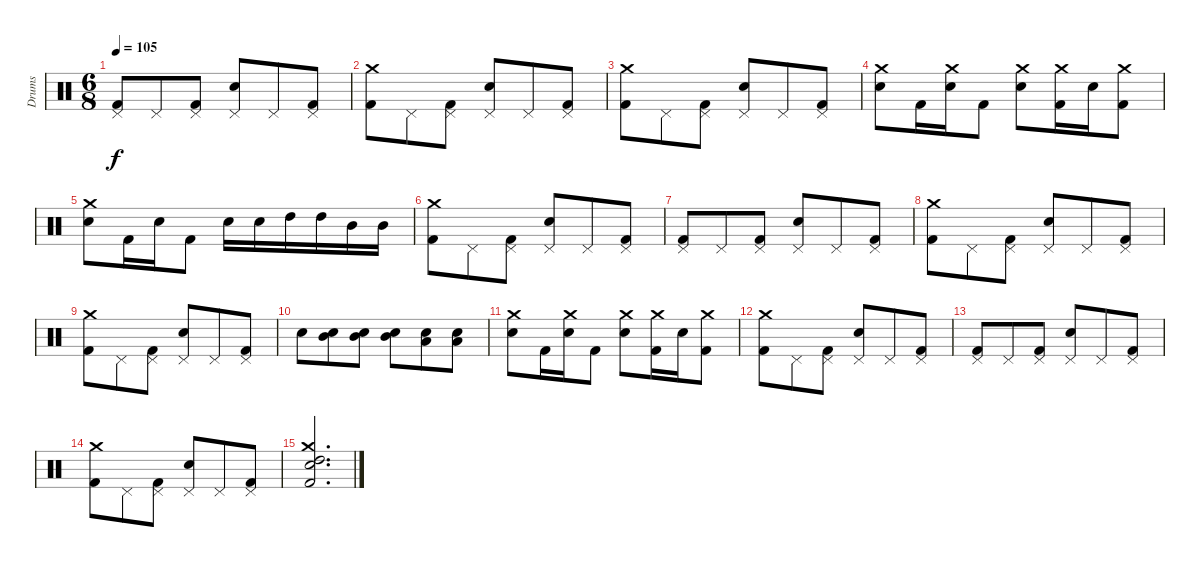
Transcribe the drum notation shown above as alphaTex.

\track ("Drums" "Drums") {instrument percussion}
\staff {score}
\articulation defaults
\ts (6 8)
\tempo 105
\clef neutral
\ks c
("Pedal Hi-Hat (hit)" "Kick (hit) 2").8{dy f} "Pedal Hi-Hat (hit)".8 ("Pedal Hi-Hat (hit)" "Kick (hit) 2").8 ("Pedal Hi-Hat (hit)" "Snare (hit) 2").8 "Pedal Hi-Hat (hit)".8 ("Pedal Hi-Hat (hit)" "Kick (hit) 2").8 |
("Crash medium (hit)" "Kick (hit) 2").8 "Pedal Hi-Hat (hit)".8 ("Pedal Hi-Hat (hit)" "Kick (hit) 2").8 ("Pedal Hi-Hat (hit)" "Snare (hit) 2").8 "Pedal Hi-Hat (hit)".8 ("Pedal Hi-Hat (hit)" "Kick (hit) 2").8 |
("Crash medium (hit)" "Kick (hit) 2").8 "Pedal Hi-Hat (hit)".8 ("Pedal Hi-Hat (hit)" "Kick (hit) 2").8 ("Pedal Hi-Hat (hit)" "Snare (hit) 2").8 "Pedal Hi-Hat (hit)".8 ("Pedal Hi-Hat (hit)" "Kick (hit) 2").8 |
("Crash medium (hit)" "Snare (hit) 2").8 "Kick (hit) 2".16 ("Crash medium (hit)" "Snare (hit) 2").16 "Kick (hit) 2".8 ("Crash medium (hit)" "Snare (hit) 2").8 ("Crash medium (hit)" "Kick (hit) 2").16 "Snare (hit) 2".16 ("Crash medium (hit)" "Kick (hit) 2").8 |
("Crash medium (hit)" "Snare (hit) 2").8 "Kick (hit) 2".16 "Snare (hit) 2".16 "Kick (hit) 2".8 "Snare (hit) 2".16 "Snare (hit) 2".16 "High Tom (hit)".16 "High Tom (hit)".16 "Mid Tom (hit)".16 "Mid Tom (hit)".16 |
("Crash medium (hit)" "Kick (hit) 2").8 "Pedal Hi-Hat (hit)".8 ("Pedal Hi-Hat (hit)" "Kick (hit) 2").8 ("Pedal Hi-Hat (hit)" "Snare (hit) 2").8 "Pedal Hi-Hat (hit)".8 ("Pedal Hi-Hat (hit)" "Kick (hit) 2").8 |
("Pedal Hi-Hat (hit)" "Kick (hit) 2").8 "Pedal Hi-Hat (hit)".8 ("Pedal Hi-Hat (hit)" "Kick (hit) 2").8 ("Pedal Hi-Hat (hit)" "Snare (hit) 2").8 "Pedal Hi-Hat (hit)".8 ("Pedal Hi-Hat (hit)" "Kick (hit) 2").8 |
("Crash medium (hit)" "Kick (hit) 2").8 "Pedal Hi-Hat (hit)".8 ("Pedal Hi-Hat (hit)" "Kick (hit) 2").8 ("Pedal Hi-Hat (hit)" "Snare (hit) 2").8 "Pedal Hi-Hat (hit)".8 ("Pedal Hi-Hat (hit)" "Kick (hit) 2").8 |
("Crash medium (hit)" "Kick (hit) 2").8 "Pedal Hi-Hat (hit)".8 ("Pedal Hi-Hat (hit)" "Kick (hit) 2").8 ("Pedal Hi-Hat (hit)" "Snare (hit) 2").8 "Pedal Hi-Hat (hit)".8 ("Pedal Hi-Hat (hit)" "Kick (hit) 2").8 |
"Snare (hit) 2".8 ("Mid Tom (hit)" "Snare (hit) 2").8{volume 8} ("Mid Tom (hit)" "Snare (hit) 2").8{volume 13} ("Mid Tom (hit)" "Snare (hit) 2").8 ("Low Tom (hit)" "Snare (hit) 2").8 ("Low Tom (hit)" "Snare (hit) 2").8 |
("Crash medium (hit)" "Snare (hit) 2").8 "Kick (hit) 2".16 ("Crash medium (hit)" "Snare (hit) 2").16 "Kick (hit) 2".8 ("Crash medium (hit)" "Snare (hit) 2").8 ("Crash medium (hit)" "Kick (hit) 2").16 "Snare (hit) 2".16 ("Crash medium (hit)" "Kick (hit) 2").8 |
("Crash medium (hit)" "Kick (hit) 2").8 "Pedal Hi-Hat (hit)".8 ("Pedal Hi-Hat (hit)" "Kick (hit) 2").8 ("Pedal Hi-Hat (hit)" "Snare (hit) 2").8 "Pedal Hi-Hat (hit)".8 ("Pedal Hi-Hat (hit)" "Kick (hit) 2").8 |
("Pedal Hi-Hat (hit)" "Kick (hit) 2").8 "Pedal Hi-Hat (hit)".8 ("Pedal Hi-Hat (hit)" "Kick (hit) 2").8 ("Pedal Hi-Hat (hit)" "Snare (hit) 2").8 "Pedal Hi-Hat (hit)".8 ("Pedal Hi-Hat (hit)" "Kick (hit) 2").8 |
("Crash medium (hit)" "Kick (hit) 2").8 "Pedal Hi-Hat (hit)".8 ("Pedal Hi-Hat (hit)" "Kick (hit) 2").8 ("Pedal Hi-Hat (hit)" "Snare (hit) 2").8 "Pedal Hi-Hat (hit)".8 ("Pedal Hi-Hat (hit)" "Kick (hit) 2").8 |
("Crash medium (hit)" "High Tom (hit)" "Snare (hit) 2" "Kick (hit) 2").2{d}
